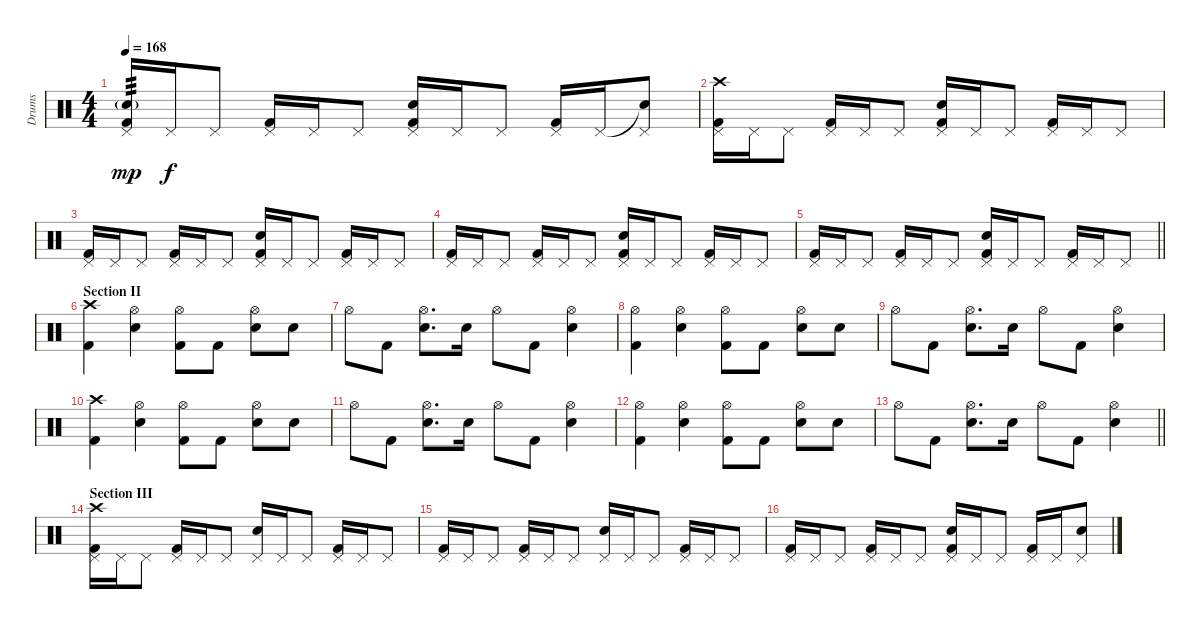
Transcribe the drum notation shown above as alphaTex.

\track ("Drums" "Drums") {instrument percussion}
\staff {score}
\articulation defaults
\ts (4 4)
\tempo 168
\clef neutral
\ks c
("Electric Snare (hit)"{g} "Pedal Hi-Hat (hit)" "Kick (hit) 2").16{tp 3 dy mp} "Pedal Hi-Hat (hit)".16{dy f} "Pedal Hi-Hat (hit)".8 ("Pedal Hi-Hat (hit)" "Kick (hit) 2").16 "Pedal Hi-Hat (hit)".16 "Pedal Hi-Hat (hit)".8 ("Pedal Hi-Hat (hit)" "Snare (hit) 2" "Kick (hit) 2").16 "Pedal Hi-Hat (hit)".16 "Pedal Hi-Hat (hit)".8 ("Pedal Hi-Hat (hit)" "Kick (hit) 2").16 "Pedal Hi-Hat (hit)".16 ("Snare (hit)"{t} "Pedal Hi-Hat (hit)").8 |
("Crash high (hit)" "Pedal Hi-Hat (hit)" "Kick (hit) 2").16 "Pedal Hi-Hat (hit)".16 "Pedal Hi-Hat (hit)".8 ("Pedal Hi-Hat (hit)" "Kick (hit) 2").16 "Pedal Hi-Hat (hit)".16 "Pedal Hi-Hat (hit)".8 ("Pedal Hi-Hat (hit)" "Snare (hit) 2" "Kick (hit) 2").16 "Pedal Hi-Hat (hit)".16 "Pedal Hi-Hat (hit)".8 ("Pedal Hi-Hat (hit)" "Kick (hit) 2").16 "Pedal Hi-Hat (hit)".16 "Pedal Hi-Hat (hit)".8 |
("Pedal Hi-Hat (hit)" "Kick (hit) 2").16 "Pedal Hi-Hat (hit)".16 "Pedal Hi-Hat (hit)".8 ("Pedal Hi-Hat (hit)" "Kick (hit) 2").16 "Pedal Hi-Hat (hit)".16 "Pedal Hi-Hat (hit)".8 ("Pedal Hi-Hat (hit)" "Snare (hit) 2" "Kick (hit) 2").16 "Pedal Hi-Hat (hit)".16 "Pedal Hi-Hat (hit)".8 ("Pedal Hi-Hat (hit)" "Kick (hit) 2").16 "Pedal Hi-Hat (hit)".16 "Pedal Hi-Hat (hit)".8 |
("Pedal Hi-Hat (hit)" "Kick (hit) 2").16 "Pedal Hi-Hat (hit)".16 "Pedal Hi-Hat (hit)".8 ("Pedal Hi-Hat (hit)" "Kick (hit) 2").16 "Pedal Hi-Hat (hit)".16 "Pedal Hi-Hat (hit)".8 ("Pedal Hi-Hat (hit)" "Snare (hit) 2" "Kick (hit) 2").16 "Pedal Hi-Hat (hit)".16 "Pedal Hi-Hat (hit)".8 ("Pedal Hi-Hat (hit)" "Kick (hit) 2").16 "Pedal Hi-Hat (hit)".16 "Pedal Hi-Hat (hit)".8 |
\barLineRight lightlight
("Pedal Hi-Hat (hit)" "Kick (hit) 2").16 "Pedal Hi-Hat (hit)".16 "Pedal Hi-Hat (hit)".8 ("Pedal Hi-Hat (hit)" "Kick (hit) 2").16 "Pedal Hi-Hat (hit)".16 "Pedal Hi-Hat (hit)".8 ("Pedal Hi-Hat (hit)" "Snare (hit) 2" "Kick (hit) 2").16 "Pedal Hi-Hat (hit)".16 "Pedal Hi-Hat (hit)".8 ("Pedal Hi-Hat (hit)" "Kick (hit) 2").16 "Pedal Hi-Hat (hit)".16 "Pedal Hi-Hat (hit)".8 |
\section ("" "Section II")
("Crash high (hit)" "Kick (hit) 2").4 ("Hi-Hat (open)" "Snare (hit) 2").4 ("Hi-Hat (open)" "Kick (hit) 2").8 "Kick (hit) 2".8 ("Hi-Hat (open)" "Snare (hit) 2").8 "Snare (hit) 2".8 |
"Hi-Hat (open)".8 "Kick (hit) 2".8 ("Hi-Hat (open)" "Snare (hit) 2").8{d} "Snare (hit) 2".16 "Hi-Hat (open)".8 "Kick (hit) 2".8 ("Hi-Hat (open)" "Snare (hit) 2").4 |
("Hi-Hat (open)" "Kick (hit) 2").4 ("Hi-Hat (open)" "Snare (hit) 2").4 ("Hi-Hat (open)" "Kick (hit) 2").8 "Kick (hit) 2".8 ("Hi-Hat (open)" "Snare (hit) 2").8 "Snare (hit) 2".8 |
"Hi-Hat (open)".8 "Kick (hit) 2".8 ("Hi-Hat (open)" "Snare (hit) 2").8{d} "Snare (hit) 2".16 "Hi-Hat (open)".8 "Kick (hit) 2".8 ("Hi-Hat (open)" "Snare (hit) 2").4 |
("Crash high (hit)" "Kick (hit) 2").4 ("Hi-Hat (open)" "Snare (hit) 2").4 ("Hi-Hat (open)" "Kick (hit) 2").8 "Kick (hit) 2".8 ("Hi-Hat (open)" "Snare (hit) 2").8 "Snare (hit) 2".8 |
"Hi-Hat (open)".8 "Kick (hit) 2".8 ("Hi-Hat (open)" "Snare (hit) 2").8{d} "Snare (hit) 2".16 "Hi-Hat (open)".8 "Kick (hit) 2".8 ("Hi-Hat (open)" "Snare (hit) 2").4 |
("Hi-Hat (open)" "Kick (hit) 2").4 ("Hi-Hat (open)" "Snare (hit) 2").4 ("Hi-Hat (open)" "Kick (hit) 2").8 "Kick (hit) 2".8 ("Hi-Hat (open)" "Snare (hit) 2").8 "Snare (hit) 2".8 |
\barLineRight lightlight "Hi-Hat (open)".8 "Kick (hit) 2".8
("Hi-Hat (open)" "Snare (hit) 2").8{d} "Snare (hit) 2".16 "Hi-Hat (open)".8 "Kick (hit) 2".8 ("Hi-Hat (open)" "Snare (hit) 2").4 |
\section ("" "Section III")
("Crash high (hit)" "Pedal Hi-Hat (hit)" "Kick (hit) 2").16 "Pedal Hi-Hat (hit)".16 "Pedal Hi-Hat (hit)".8 ("Pedal Hi-Hat (hit)" "Kick (hit) 2").16 "Pedal Hi-Hat (hit)".16 "Pedal Hi-Hat (hit)".8 ("Pedal Hi-Hat (hit)" "Snare (hit) 2").16 "Pedal Hi-Hat (hit)".16 "Pedal Hi-Hat (hit)".8 ("Pedal Hi-Hat (hit)" "Kick (hit) 2").16 "Pedal Hi-Hat (hit)".16 "Pedal Hi-Hat (hit)".8 |
("Pedal Hi-Hat (hit)" "Kick (hit) 2").16 "Pedal Hi-Hat (hit)".16 "Pedal Hi-Hat (hit)".8 ("Pedal Hi-Hat (hit)" "Kick (hit) 2").16 "Pedal Hi-Hat (hit)".16 "Pedal Hi-Hat (hit)".8 ("Pedal Hi-Hat (hit)" "Snare (hit) 2").16 "Pedal Hi-Hat (hit)".16 "Pedal Hi-Hat (hit)".8 ("Pedal Hi-Hat (hit)" "Kick (hit) 2").16 "Pedal Hi-Hat (hit)".16 "Pedal Hi-Hat (hit)".8 |
("Pedal Hi-Hat (hit)" "Kick (hit) 2").16 "Pedal Hi-Hat (hit)".16 "Pedal Hi-Hat (hit)".8 ("Pedal Hi-Hat (hit)" "Kick (hit) 2").16 "Pedal Hi-Hat (hit)".16 "Pedal Hi-Hat (hit)".8 ("Pedal Hi-Hat (hit)" "Snare (hit) 2" "Kick (hit) 2").16 "Pedal Hi-Hat (hit)".16 "Pedal Hi-Hat (hit)".8 ("Pedal Hi-Hat (hit)" "Kick (hit) 2").16 "Pedal Hi-Hat (hit)".16 ("Pedal Hi-Hat (hit)" "Snare (hit) 2").8
